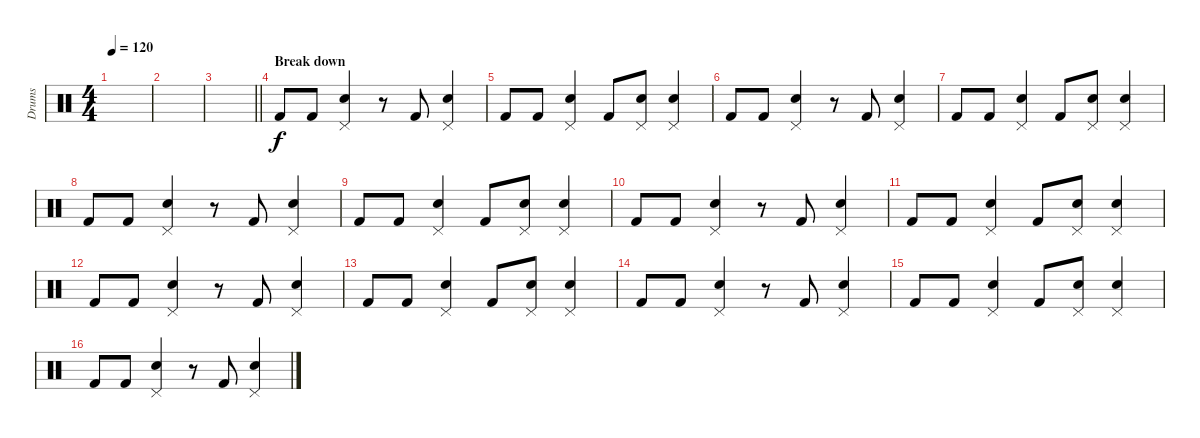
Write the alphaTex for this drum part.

\track ("Drums" "Drums") {instrument percussion}
\staff {score}
\articulation defaults
\ts (4 4)
\tempo 120
\clef neutral
\ks c
|
|
\barLineRight lightlight
|
\section ("" "Break down")
"Kick (hit) 2".8 "Kick (hit) 2".8 ("Snare (hit) 2" "Pedal Hi-Hat (hit)").4 r.8 "Kick (hit) 2".8 ("Snare (hit) 2" "Pedal Hi-Hat (hit)").4 |
"Kick (hit) 2".8 "Kick (hit) 2".8 ("Snare (hit) 2" "Pedal Hi-Hat (hit)").4 "Kick (hit) 2".8 ("Snare (hit) 2" "Pedal Hi-Hat (hit)").8 ("Snare (hit) 2" "Pedal Hi-Hat (hit)").4 |
"Kick (hit) 2".8 "Kick (hit) 2".8 ("Snare (hit) 2" "Pedal Hi-Hat (hit)").4 r.8 "Kick (hit) 2".8 ("Snare (hit) 2" "Pedal Hi-Hat (hit)").4 |
"Kick (hit) 2".8 "Kick (hit) 2".8 ("Snare (hit) 2" "Pedal Hi-Hat (hit)").4 "Kick (hit) 2".8 ("Snare (hit) 2" "Pedal Hi-Hat (hit)").8 ("Snare (hit) 2" "Pedal Hi-Hat (hit)").4 |
"Kick (hit) 2".8 "Kick (hit) 2".8 ("Snare (hit) 2" "Pedal Hi-Hat (hit)").4 r.8 "Kick (hit) 2".8 ("Snare (hit) 2" "Pedal Hi-Hat (hit)").4 |
"Kick (hit) 2".8 "Kick (hit) 2".8 ("Snare (hit) 2" "Pedal Hi-Hat (hit)").4 "Kick (hit) 2".8 ("Snare (hit) 2" "Pedal Hi-Hat (hit)").8 ("Snare (hit) 2" "Pedal Hi-Hat (hit)").4 |
"Kick (hit) 2".8 "Kick (hit) 2".8 ("Snare (hit) 2" "Pedal Hi-Hat (hit)").4 r.8 "Kick (hit) 2".8 ("Snare (hit) 2" "Pedal Hi-Hat (hit)").4 |
"Kick (hit) 2".8 "Kick (hit) 2".8 ("Snare (hit) 2" "Pedal Hi-Hat (hit)").4 "Kick (hit) 2".8 ("Snare (hit) 2" "Pedal Hi-Hat (hit)").8 ("Snare (hit) 2" "Pedal Hi-Hat (hit)").4 |
"Kick (hit) 2".8 "Kick (hit) 2".8 ("Snare (hit) 2" "Pedal Hi-Hat (hit)").4 r.8 "Kick (hit) 2".8 ("Snare (hit) 2" "Pedal Hi-Hat (hit)").4 |
"Kick (hit) 2".8 "Kick (hit) 2".8 ("Snare (hit) 2" "Pedal Hi-Hat (hit)").4 "Kick (hit) 2".8 ("Snare (hit) 2" "Pedal Hi-Hat (hit)").8 ("Snare (hit) 2" "Pedal Hi-Hat (hit)").4 |
"Kick (hit) 2".8 "Kick (hit) 2".8 ("Snare (hit) 2" "Pedal Hi-Hat (hit)").4 r.8 "Kick (hit) 2".8 ("Snare (hit) 2" "Pedal Hi-Hat (hit)").4 |
"Kick (hit) 2".8 "Kick (hit) 2".8 ("Snare (hit) 2" "Pedal Hi-Hat (hit)").4 "Kick (hit) 2".8 ("Snare (hit) 2" "Pedal Hi-Hat (hit)").8 ("Snare (hit) 2" "Pedal Hi-Hat (hit)").4 |
"Kick (hit) 2".8 "Kick (hit) 2".8 ("Snare (hit) 2" "Pedal Hi-Hat (hit)").4 r.8 "Kick (hit) 2".8 ("Snare (hit) 2" "Pedal Hi-Hat (hit)").4
